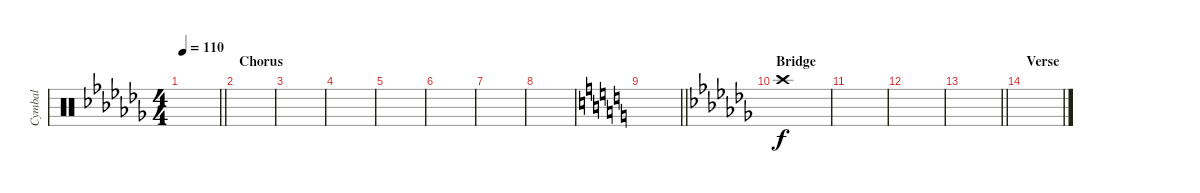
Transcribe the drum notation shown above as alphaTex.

\track ("Cymbal" "Cymbal") {instrument percussion}
\staff {score}
\articulation defaults
\ts (4 4)
\tempo 110
\clef neutral
\barLineRight lightlight
\ks abminor
|
\section ("" "Chorus")
|
|
|
|
|
|
|
\barLineRight lightlight
\ks c
|
\section ("" "Bridge")
\ks abminor "Crash high (hit)".1
|
|
|
\barLineRight lightlight
|
\section ("" "Verse")
